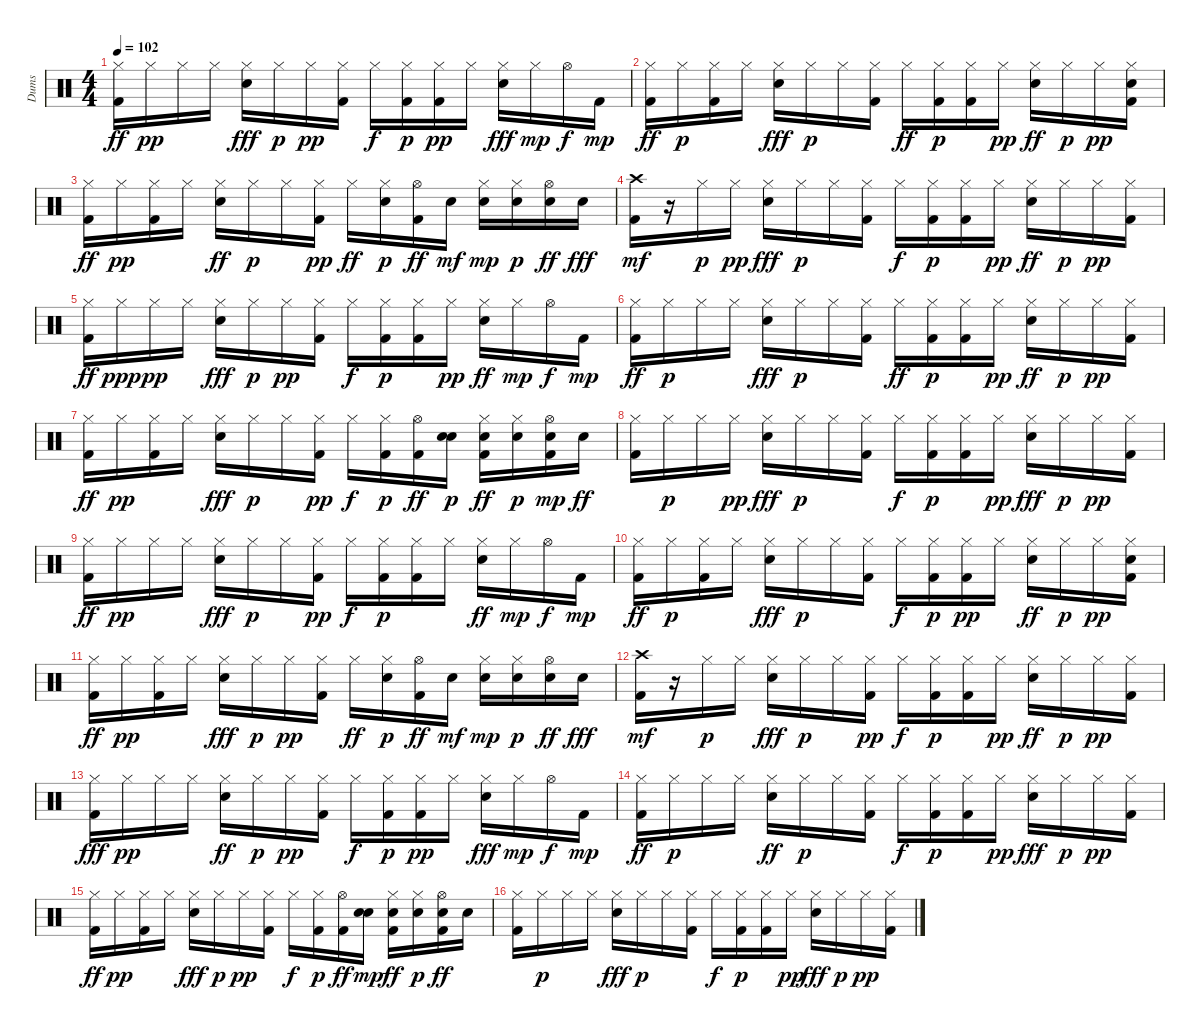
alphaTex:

\track ("Dums" "Dums") {instrument percussion}
\staff {score}
\articulation defaults
\ts (4 4)
\tempo 102
\clef neutral
\ks c
("Kick (hit) 2" "Hi-Hat (closed)").16{dy ff} "Hi-Hat (closed)".16{dy pp} "Hi-Hat (closed)".16 "Hi-Hat (closed)".16 ("Electric Snare (hit)" "Hi-Hat (closed)").16{dy fff} "Hi-Hat (closed)".16{dy p} "Hi-Hat (closed)".16{dy pp} ("Kick (hit) 2" "Hi-Hat (closed)").16 "Hi-Hat (closed)".16{dy f} ("Kick (hit) 2" "Hi-Hat (closed)").16{dy p} ("Kick (hit) 2" "Hi-Hat (closed)").16{dy pp} "Hi-Hat (closed)".16 ("Electric Snare (hit)" "Hi-Hat (closed)").16{dy fff} "Hi-Hat (closed)".16{dy mp} "Hi-Hat (open)".16{dy f} "Kick (hit) 2".16{dy mp} |
("Kick (hit) 2" "Hi-Hat (closed)").16{dy ff} "Hi-Hat (closed)".16{dy p} ("Kick (hit) 2" "Hi-Hat (closed)").16 "Hi-Hat (closed)".16 ("Electric Snare (hit)" "Hi-Hat (closed)").16{dy fff} "Hi-Hat (closed)".16{dy p} "Hi-Hat (closed)".16 ("Kick (hit) 2" "Hi-Hat (closed)").16 "Hi-Hat (closed)".16{dy ff} ("Kick (hit) 2" "Hi-Hat (closed)").16{dy p} ("Kick (hit) 2" "Hi-Hat (closed)").16 "Hi-Hat (closed)".16{dy pp} ("Electric Snare (hit)" "Hi-Hat (closed)").16{dy ff} "Hi-Hat (closed)".16{dy p} "Hi-Hat (closed)".16{dy pp} ("Kick (hit) 2" "Electric Snare (hit)" "Hi-Hat (closed)").16 |
("Kick (hit) 2" "Hi-Hat (closed)").16{dy ff} "Hi-Hat (closed)".16{dy pp} ("Kick (hit) 2" "Hi-Hat (closed)").16 "Hi-Hat (closed)".16 ("Electric Snare (hit)" "Hi-Hat (closed)").16{dy ff} "Hi-Hat (closed)".16{dy p} "Hi-Hat (closed)".16 ("Kick (hit) 2" "Hi-Hat (closed)").16{dy pp} "Hi-Hat (closed)".16{dy ff} ("Electric Snare (hit)" "Hi-Hat (closed)").16{dy p} ("Kick (hit) 2" "Hi-Hat (open)").16{dy ff} "Electric Snare (hit)".16{dy mf} ("Electric Snare (hit)" "Hi-Hat (closed)").16{dy mp} ("Electric Snare (hit)" "Hi-Hat (closed)").16{dy p} ("Electric Snare (hit)" "Hi-Hat (open)").16{dy ff} "Electric Snare (hit)".16{dy fff} |
("Kick (hit) 2" "Crash high (hit)").16{dy mf} r.16 "Hi-Hat (closed)".16{dy p} "Hi-Hat (closed)".16{dy pp} ("Electric Snare (hit)" "Hi-Hat (closed)").16{dy fff} "Hi-Hat (closed)".16{dy p} "Hi-Hat (closed)".16 ("Kick (hit) 2" "Hi-Hat (closed)").16 "Hi-Hat (closed)".16{dy f} ("Kick (hit) 2" "Hi-Hat (closed)").16{dy p} ("Kick (hit) 2" "Hi-Hat (closed)").16 "Hi-Hat (closed)".16{dy pp} ("Electric Snare (hit)" "Hi-Hat (closed)").16{dy ff} "Hi-Hat (closed)".16{dy p} "Hi-Hat (closed)".16{dy pp} ("Kick (hit) 2" "Hi-Hat (closed)").16 |
("Kick (hit) 2" "Hi-Hat (closed)").16{dy ff} "Hi-Hat (closed)".16{dy ppp} "Hi-Hat (closed)".16{dy pp} "Hi-Hat (closed)".16 ("Electric Snare (hit)" "Hi-Hat (closed)").16{dy fff} "Hi-Hat (closed)".16{dy p} "Hi-Hat (closed)".16{dy pp} ("Kick (hit) 2" "Hi-Hat (closed)").16 "Hi-Hat (closed)".16{dy f} ("Kick (hit) 2" "Hi-Hat (closed)").16{dy p} ("Kick (hit) 2" "Hi-Hat (closed)").16 "Hi-Hat (closed)".16{dy pp} ("Electric Snare (hit)" "Hi-Hat (closed)").16{dy ff} "Hi-Hat (closed)".16{dy mp} "Hi-Hat (open)".16{dy f} "Kick (hit) 2".16{dy mp} |
("Kick (hit) 2" "Hi-Hat (closed)").16{dy ff} "Hi-Hat (closed)".16{dy p} "Hi-Hat (closed)".16 "Hi-Hat (closed)".16 ("Electric Snare (hit)" "Hi-Hat (closed)").16{dy fff} "Hi-Hat (closed)".16{dy p} "Hi-Hat (closed)".16 ("Kick (hit) 2" "Hi-Hat (closed)").16 "Hi-Hat (closed)".16{dy ff} ("Kick (hit) 2" "Hi-Hat (closed)").16{dy p} ("Kick (hit) 2" "Hi-Hat (closed)").16 "Hi-Hat (closed)".16{dy pp} ("Electric Snare (hit)" "Hi-Hat (closed)").16{dy ff} "Hi-Hat (closed)".16{dy p} "Hi-Hat (closed)".16{dy pp} ("Kick (hit) 2" "Hi-Hat (closed)").16 |
("Kick (hit) 2" "Hi-Hat (closed)").16{dy ff} "Hi-Hat (closed)".16{dy pp} ("Kick (hit) 2" "Hi-Hat (closed)").16 "Hi-Hat (closed)".16 ("Electric Snare (hit)" "Hi-Hat (closed)").16{dy fff} "Hi-Hat (closed)".16{dy p} "Hi-Hat (closed)".16 ("Kick (hit) 2" "Hi-Hat (closed)").16{dy pp} "Hi-Hat (closed)".16{dy f} ("Kick (hit) 2" "Hi-Hat (closed)").16{dy p} ("Kick (hit) 2" "Hi-Hat (open)").16{dy ff} ("Electric Snare (hit)" "Electric Snare (hit)").16{dy p} ("Kick (hit) 2" "Electric Snare (hit)" "Hi-Hat (closed)").16{dy ff} ("Electric Snare (hit)" "Hi-Hat (closed)").16{dy p} ("Kick (hit) 2" "Electric Snare (hit)" "Hi-Hat (open)").16{dy mp} "Electric Snare (hit)".16{dy ff} |
("Kick (hit) 2" "Hi-Hat (closed)").16 "Hi-Hat (closed)".16{dy p} "Hi-Hat (closed)".16 "Hi-Hat (closed)".16{dy pp} ("Electric Snare (hit)" "Hi-Hat (closed)").16{dy fff} "Hi-Hat (closed)".16{dy p} "Hi-Hat (closed)".16 ("Kick (hit) 2" "Hi-Hat (closed)").16 "Hi-Hat (closed)".16{dy f} ("Kick (hit) 2" "Hi-Hat (closed)").16{dy p} ("Kick (hit) 2" "Hi-Hat (closed)").16 "Hi-Hat (closed)".16{dy pp} ("Electric Snare (hit)" "Hi-Hat (closed)").16{dy fff} "Hi-Hat (closed)".16{dy p} "Hi-Hat (closed)".16{dy pp} ("Kick (hit) 2" "Hi-Hat (closed)").16 |
("Kick (hit) 2" "Hi-Hat (closed)").16{dy ff} "Hi-Hat (closed)".16{dy pp} "Hi-Hat (closed)".16 "Hi-Hat (closed)".16 ("Electric Snare (hit)" "Hi-Hat (closed)").16{dy fff} "Hi-Hat (closed)".16{dy p} "Hi-Hat (closed)".16 ("Kick (hit) 2" "Hi-Hat (closed)").16{dy pp} "Hi-Hat (closed)".16{dy f} ("Kick (hit) 2" "Hi-Hat (closed)").16{dy p} ("Kick (hit) 2" "Hi-Hat (closed)").16 "Hi-Hat (closed)".16 ("Electric Snare (hit)" "Hi-Hat (closed)").16{dy ff} "Hi-Hat (closed)".16{dy mp} "Hi-Hat (open)".16{dy f} "Kick (hit) 2".16{dy mp} |
("Kick (hit) 2" "Hi-Hat (closed)").16{dy ff} "Hi-Hat (closed)".16{dy p} ("Kick (hit) 2" "Hi-Hat (closed)").16 "Hi-Hat (closed)".16 ("Electric Snare (hit)" "Hi-Hat (closed)").16{dy fff} "Hi-Hat (closed)".16{dy p} "Hi-Hat (closed)".16 ("Kick (hit) 2" "Hi-Hat (closed)").16 "Hi-Hat (closed)".16{dy f} ("Kick (hit) 2" "Hi-Hat (closed)").16{dy p} ("Kick (hit) 2" "Hi-Hat (closed)").16{dy pp} "Hi-Hat (closed)".16 ("Electric Snare (hit)" "Hi-Hat (closed)").16{dy ff} "Hi-Hat (closed)".16{dy p} "Hi-Hat (closed)".16{dy pp} ("Kick (hit) 2" "Electric Snare (hit)" "Hi-Hat (closed)").16 |
("Kick (hit) 2" "Hi-Hat (closed)").16{dy ff} "Hi-Hat (closed)".16{dy pp} ("Kick (hit) 2" "Hi-Hat (closed)").16 "Hi-Hat (closed)".16 ("Electric Snare (hit)" "Hi-Hat (closed)").16{dy fff} "Hi-Hat (closed)".16{dy p} "Hi-Hat (closed)".16{dy pp} ("Kick (hit) 2" "Hi-Hat (closed)").16 "Hi-Hat (closed)".16{dy ff} ("Electric Snare (hit)" "Hi-Hat (closed)").16{dy p} ("Kick (hit) 2" "Hi-Hat (open)").16{dy ff} "Electric Snare (hit)".16{dy mf} ("Electric Snare (hit)" "Hi-Hat (closed)").16{dy mp} ("Electric Snare (hit)" "Hi-Hat (closed)").16{dy p} ("Electric Snare (hit)" "Hi-Hat (open)").16{dy ff} "Electric Snare (hit)".16{dy fff} |
("Kick (hit) 2" "Crash high (hit)").16{dy mf} r.16 "Hi-Hat (closed)".16{dy p} "Hi-Hat (closed)".16 ("Electric Snare (hit)" "Hi-Hat (closed)").16{dy fff} "Hi-Hat (closed)".16{dy p} "Hi-Hat (closed)".16 ("Kick (hit) 2" "Hi-Hat (closed)").16{dy pp} "Hi-Hat (closed)".16{dy f} ("Kick (hit) 2" "Hi-Hat (closed)").16{dy p} ("Kick (hit) 2" "Hi-Hat (closed)").16 "Hi-Hat (closed)".16{dy pp} ("Electric Snare (hit)" "Hi-Hat (closed)").16{dy ff} "Hi-Hat (closed)".16{dy p} "Hi-Hat (closed)".16{dy pp} ("Kick (hit) 2" "Hi-Hat (closed)").16 |
("Kick (hit) 2" "Hi-Hat (closed)").16{dy fff} "Hi-Hat (closed)".16{dy pp} "Hi-Hat (closed)".16 "Hi-Hat (closed)".16 ("Electric Snare (hit)" "Hi-Hat (closed)").16{dy ff} "Hi-Hat (closed)".16{dy p} "Hi-Hat (closed)".16{dy pp} ("Kick (hit) 2" "Hi-Hat (closed)").16 "Hi-Hat (closed)".16{dy f} ("Kick (hit) 2" "Hi-Hat (closed)").16{dy p} ("Kick (hit) 2" "Hi-Hat (closed)").16{dy pp} "Hi-Hat (closed)".16 ("Electric Snare (hit)" "Hi-Hat (closed)").16{dy fff} "Hi-Hat (closed)".16{dy mp} "Hi-Hat (open)".16{dy f} "Kick (hit) 2".16{dy mp} |
("Kick (hit) 2" "Hi-Hat (closed)").16{dy ff} "Hi-Hat (closed)".16{dy p} "Hi-Hat (closed)".16 "Hi-Hat (closed)".16 ("Electric Snare (hit)" "Hi-Hat (closed)").16{dy ff} "Hi-Hat (closed)".16{dy p} "Hi-Hat (closed)".16 ("Kick (hit) 2" "Hi-Hat (closed)").16 "Hi-Hat (closed)".16{dy f} ("Kick (hit) 2" "Hi-Hat (closed)").16{dy p} ("Kick (hit) 2" "Hi-Hat (closed)").16 "Hi-Hat (closed)".16{dy pp} ("Electric Snare (hit)" "Hi-Hat (closed)").16{dy fff} "Hi-Hat (closed)".16{dy p} "Hi-Hat (closed)".16{dy pp} ("Kick (hit) 2" "Hi-Hat (closed)").16 |
("Kick (hit) 2" "Hi-Hat (closed)").16{dy ff} "Hi-Hat (closed)".16{dy pp} ("Kick (hit) 2" "Hi-Hat (closed)").16 "Hi-Hat (closed)".16 ("Electric Snare (hit)" "Hi-Hat (closed)").16{dy fff} "Hi-Hat (closed)".16{dy p} "Hi-Hat (closed)".16{dy pp} ("Kick (hit) 2" "Hi-Hat (closed)").16 "Hi-Hat (closed)".16{dy f} ("Kick (hit) 2" "Hi-Hat (closed)").16{dy p} ("Kick (hit) 2" "Hi-Hat (open)").16{dy ff} ("Electric Snare (hit)" "Electric Snare (hit)").16{dy mp} ("Kick (hit) 2" "Electric Snare (hit)" "Hi-Hat (closed)").16{dy ff} ("Electric Snare (hit)" "Hi-Hat (closed)").16{dy p} ("Kick (hit) 2" "Electric Snare (hit)" "Hi-Hat (open)").16{dy ff} "Electric Snare (hit)".16 |
("Kick (hit) 2" "Hi-Hat (closed)").16 "Hi-Hat (closed)".16{dy p} "Hi-Hat (closed)".16 "Hi-Hat (closed)".16 ("Electric Snare (hit)" "Hi-Hat (closed)").16{dy fff} "Hi-Hat (closed)".16{dy p} "Hi-Hat (closed)".16 ("Kick (hit) 2" "Hi-Hat (closed)").16 "Hi-Hat (closed)".16{dy f} ("Kick (hit) 2" "Hi-Hat (closed)").16{dy p} ("Kick (hit) 2" "Hi-Hat (closed)").16 "Hi-Hat (closed)".16{dy pp} ("Electric Snare (hit)" "Hi-Hat (closed)").16{dy fff} "Hi-Hat (closed)".16{dy p} "Hi-Hat (closed)".16{dy pp} ("Kick (hit) 2" "Hi-Hat (closed)").16
